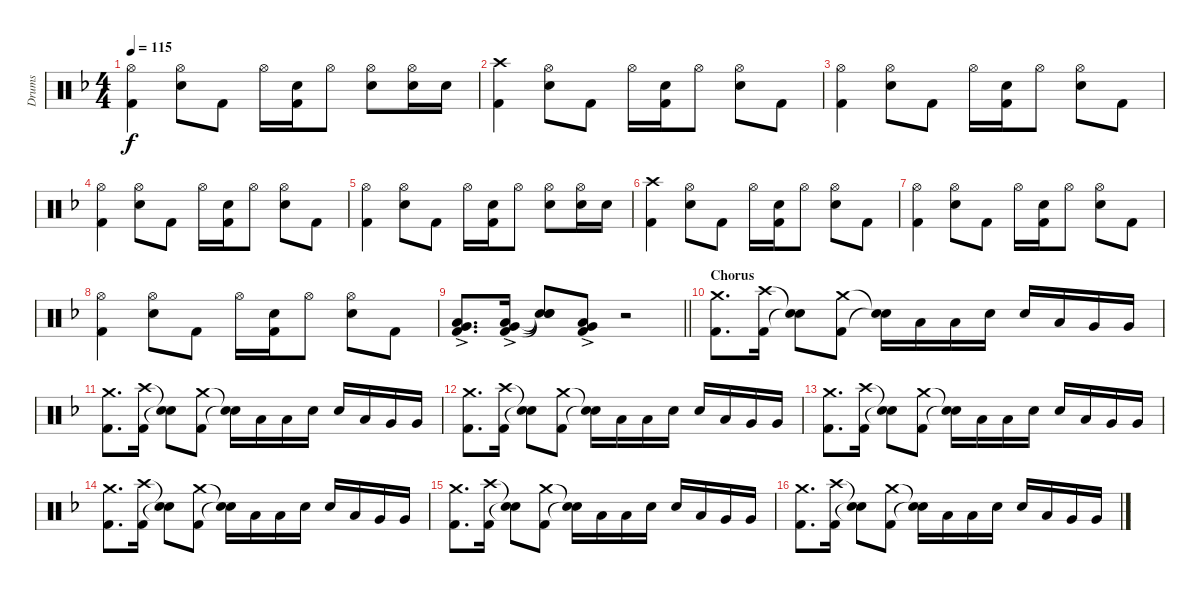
\track ("Drums" "Drums") {instrument percussion}
\staff {score}
\articulation defaults
\ts (4 4)
\tempo 115
\clef neutral
\ks dminor
("Hi-Hat (open)" "Kick (hit) 2").4{dy f} ("Hi-Hat (open)" "Electric Snare (hit)").8 "Kick (hit) 2".8 "Hi-Hat (open)".16 ("Electric Snare (hit)" "Kick (hit) 2").16 "Hi-Hat (open)".8 ("Hi-Hat (open)" "Electric Snare (hit)").8 ("Hi-Hat (open)" "Electric Snare (hit)").16 "Electric Snare (hit)".16 |
("Crash high (hit)" "Kick (hit) 2").4 ("Hi-Hat (open)" "Electric Snare (hit)").8 "Kick (hit) 2".8 "Hi-Hat (open)".16 ("Electric Snare (hit)" "Kick (hit) 2").16 "Hi-Hat (open)".8 ("Hi-Hat (open)" "Electric Snare (hit)").8 "Kick (hit) 2".8 |
("Hi-Hat (open)" "Kick (hit) 2").4 ("Hi-Hat (open)" "Electric Snare (hit)").8 "Kick (hit) 2".8 "Hi-Hat (open)".16 ("Electric Snare (hit)" "Kick (hit) 2").16 "Hi-Hat (open)".8 ("Hi-Hat (open)" "Electric Snare (hit)").8 "Kick (hit) 2".8 |
("Hi-Hat (open)" "Kick (hit) 2").4 ("Hi-Hat (open)" "Electric Snare (hit)").8 "Kick (hit) 2".8 "Hi-Hat (open)".16 ("Electric Snare (hit)" "Kick (hit) 2").16 "Hi-Hat (open)".8 ("Hi-Hat (open)" "Electric Snare (hit)").8 "Kick (hit) 2".8 |
("Hi-Hat (open)" "Kick (hit) 2").4 ("Hi-Hat (open)" "Electric Snare (hit)").8 "Kick (hit) 2".8 "Hi-Hat (open)".16 ("Electric Snare (hit)" "Kick (hit) 2").16 "Hi-Hat (open)".8 ("Hi-Hat (open)" "Electric Snare (hit)").8 ("Hi-Hat (open)" "Electric Snare (hit)").16 "Electric Snare (hit)".16 |
("Crash high (hit)" "Kick (hit) 2").4 ("Hi-Hat (open)" "Electric Snare (hit)").8 "Kick (hit) 2".8 "Hi-Hat (open)".16 ("Electric Snare (hit)" "Kick (hit) 2").16 "Hi-Hat (open)".8 ("Hi-Hat (open)" "Electric Snare (hit)").8 "Kick (hit) 2".8 |
("Hi-Hat (open)" "Kick (hit) 2").4 ("Hi-Hat (open)" "Electric Snare (hit)").8 "Kick (hit) 2".8 "Hi-Hat (open)".16 ("Electric Snare (hit)" "Kick (hit) 2").16 "Hi-Hat (open)".8 ("Hi-Hat (open)" "Electric Snare (hit)").8 "Kick (hit) 2".8 |
("Hi-Hat (open)" "Kick (hit) 2").4 ("Hi-Hat (open)" "Electric Snare (hit)").8 "Kick (hit) 2".8 "Hi-Hat (open)".16 ("Electric Snare (hit)" "Kick (hit) 2").16 "Hi-Hat (open)".8 ("Hi-Hat (open)" "Electric Snare (hit)").8 "Kick (hit) 2".8 |
\barLineRight lightlight
("Low Tom (hit)"{ac} "Very Low Tom (hit)"{ac} "Kick (hit) 2"{ac}).8{d} ("Low Tom (hit)"{ac} "Very Low Tom (hit)"{ac} "Kick (hit) 2"{ac}).16 ("Snare (hit)"{t} "Snare (hit)"{t} "Snare (hit)"{t}).8 ("Low Tom (hit)"{ac} "Very Low Tom (hit)"{ac} "Kick (hit) 2"{ac}).8 r.2 |
\section ("" "Chorus")
("Crash medium (hit)" "Kick (hit) 2").8{d} ("Crash high (hit)" "Kick (hit) 2").16 ("Snare (hit)"{t} "Snare (hit)"{t}).8 ("Crash medium (hit)" "Kick (hit) 2").8 ("Snare (hit)"{t} "Snare (hit)"{t}).16 "Low Tom (hit)".16 "Low Tom (hit)".16 "Electric Snare (hit)".16 "Electric Snare (hit)".16 "Low Tom (hit)".16 "Very Low Tom (hit)".16 "Very Low Tom (hit)".16 |
("Crash medium (hit)" "Kick (hit) 2").8{d} ("Crash high (hit)" "Kick (hit) 2").16 ("Snare (hit)"{t} "Snare (hit)"{t}).8 ("Crash medium (hit)" "Kick (hit) 2").8 ("Snare (hit)"{t} "Snare (hit)"{t}).16 "Low Tom (hit)".16 "Low Tom (hit)".16 "Electric Snare (hit)".16 "Electric Snare (hit)".16 "Low Tom (hit)".16 "Very Low Tom (hit)".16 "Very Low Tom (hit)".16 |
("Crash medium (hit)" "Kick (hit) 2").8{d} ("Crash high (hit)" "Kick (hit) 2").16 ("Snare (hit)"{t} "Snare (hit)"{t}).8 ("Crash medium (hit)" "Kick (hit) 2").8 ("Snare (hit)"{t} "Snare (hit)"{t}).16 "Low Tom (hit)".16 "Low Tom (hit)".16 "Electric Snare (hit)".16 "Electric Snare (hit)".16 "Low Tom (hit)".16 "Very Low Tom (hit)".16 "Very Low Tom (hit)".16 |
("Crash medium (hit)" "Kick (hit) 2").8{d} ("Crash high (hit)" "Kick (hit) 2").16 ("Snare (hit)"{t} "Snare (hit)"{t}).8 ("Crash medium (hit)" "Kick (hit) 2").8 ("Snare (hit)"{t} "Snare (hit)"{t}).16 "Low Tom (hit)".16 "Low Tom (hit)".16 "Electric Snare (hit)".16 "Electric Snare (hit)".16 "Low Tom (hit)".16 "Very Low Tom (hit)".16 "Very Low Tom (hit)".16 |
("Crash medium (hit)" "Kick (hit) 2").8{d} ("Crash high (hit)" "Kick (hit) 2").16 ("Snare (hit)"{t} "Snare (hit)"{t}).8 ("Crash medium (hit)" "Kick (hit) 2").8 ("Snare (hit)"{t} "Snare (hit)"{t}).16 "Low Tom (hit)".16 "Low Tom (hit)".16 "Electric Snare (hit)".16 "Electric Snare (hit)".16 "Low Tom (hit)".16 "Very Low Tom (hit)".16 "Very Low Tom (hit)".16 |
("Crash medium (hit)" "Kick (hit) 2").8{d} ("Crash high (hit)" "Kick (hit) 2").16 ("Snare (hit)"{t} "Snare (hit)"{t}).8 ("Crash medium (hit)" "Kick (hit) 2").8 ("Snare (hit)"{t} "Snare (hit)"{t}).16 "Low Tom (hit)".16 "Low Tom (hit)".16 "Electric Snare (hit)".16 "Electric Snare (hit)".16 "Low Tom (hit)".16 "Very Low Tom (hit)".16 "Very Low Tom (hit)".16 |
("Crash medium (hit)" "Kick (hit) 2").8{d} ("Crash high (hit)" "Kick (hit) 2").16 ("Snare (hit)"{t} "Snare (hit)"{t}).8 ("Crash medium (hit)" "Kick (hit) 2").8 ("Snare (hit)"{t} "Snare (hit)"{t}).16 "Low Tom (hit)".16 "Low Tom (hit)".16 "Electric Snare (hit)".16 "Electric Snare (hit)".16 "Low Tom (hit)".16 "Very Low Tom (hit)".16 "Very Low Tom (hit)".16
